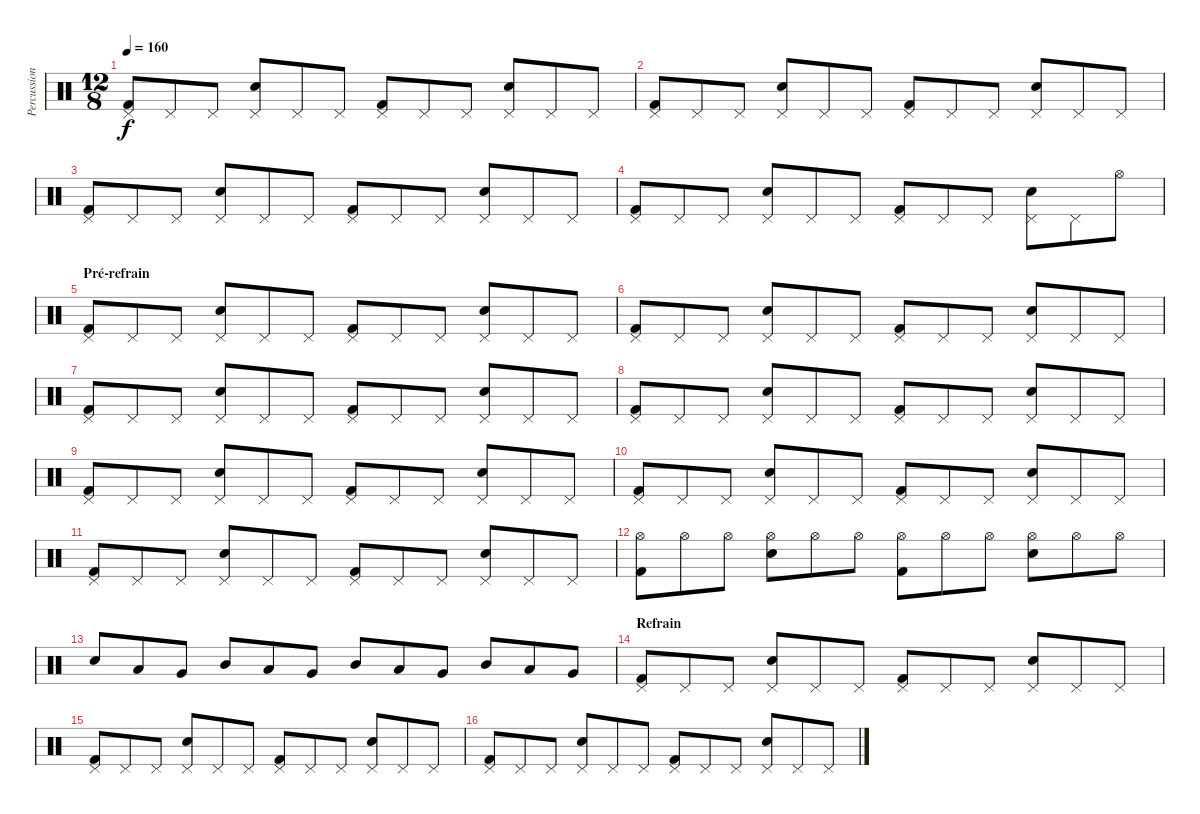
\track ("Percussions" "Percussion") {instrument percussion}
\staff {score}
\articulation defaults
\ts (12 8)
\tempo 160
\clef neutral
\ks c
("Pedal Hi-Hat (hit)" "Kick (hit) 2").8{dy f} "Pedal Hi-Hat (hit)".8 "Pedal Hi-Hat (hit)".8 ("Pedal Hi-Hat (hit)" "Electric Snare (hit)").8 "Pedal Hi-Hat (hit)".8 "Pedal Hi-Hat (hit)".8 ("Pedal Hi-Hat (hit)" "Kick (hit) 2").8 "Pedal Hi-Hat (hit)".8 "Pedal Hi-Hat (hit)".8 ("Pedal Hi-Hat (hit)" "Electric Snare (hit)").8 "Pedal Hi-Hat (hit)".8 "Pedal Hi-Hat (hit)".8 |
("Pedal Hi-Hat (hit)" "Kick (hit) 2").8 "Pedal Hi-Hat (hit)".8 "Pedal Hi-Hat (hit)".8 ("Pedal Hi-Hat (hit)" "Electric Snare (hit)").8 "Pedal Hi-Hat (hit)".8 "Pedal Hi-Hat (hit)".8 ("Pedal Hi-Hat (hit)" "Kick (hit) 2").8 "Pedal Hi-Hat (hit)".8 "Pedal Hi-Hat (hit)".8 ("Pedal Hi-Hat (hit)" "Electric Snare (hit)").8 "Pedal Hi-Hat (hit)".8 "Pedal Hi-Hat (hit)".8 |
("Pedal Hi-Hat (hit)" "Kick (hit) 2").8 "Pedal Hi-Hat (hit)".8 "Pedal Hi-Hat (hit)".8 ("Pedal Hi-Hat (hit)" "Electric Snare (hit)").8 "Pedal Hi-Hat (hit)".8 "Pedal Hi-Hat (hit)".8 ("Pedal Hi-Hat (hit)" "Kick (hit) 2").8 "Pedal Hi-Hat (hit)".8 "Pedal Hi-Hat (hit)".8 ("Pedal Hi-Hat (hit)" "Electric Snare (hit)").8 "Pedal Hi-Hat (hit)".8 "Pedal Hi-Hat (hit)".8 |
("Pedal Hi-Hat (hit)" "Kick (hit) 2").8 "Pedal Hi-Hat (hit)".8 "Pedal Hi-Hat (hit)".8 ("Pedal Hi-Hat (hit)" "Electric Snare (hit)").8 "Pedal Hi-Hat (hit)".8 "Pedal Hi-Hat (hit)".8 ("Pedal Hi-Hat (hit)" "Kick (hit) 2").8 "Pedal Hi-Hat (hit)".8 "Pedal Hi-Hat (hit)".8 ("Pedal Hi-Hat (hit)" "Electric Snare (hit)").8 "Pedal Hi-Hat (hit)".8 "Hi-Hat (open)".8 |
\section ("" "Pré-refrain")
("Pedal Hi-Hat (hit)" "Kick (hit) 2").8 "Pedal Hi-Hat (hit)".8 "Pedal Hi-Hat (hit)".8 ("Pedal Hi-Hat (hit)" "Electric Snare (hit)").8 "Pedal Hi-Hat (hit)".8 "Pedal Hi-Hat (hit)".8 ("Pedal Hi-Hat (hit)" "Kick (hit) 2").8 "Pedal Hi-Hat (hit)".8 "Pedal Hi-Hat (hit)".8 ("Pedal Hi-Hat (hit)" "Electric Snare (hit)").8 "Pedal Hi-Hat (hit)".8 "Pedal Hi-Hat (hit)".8 |
("Pedal Hi-Hat (hit)" "Kick (hit) 2").8 "Pedal Hi-Hat (hit)".8 "Pedal Hi-Hat (hit)".8 ("Pedal Hi-Hat (hit)" "Electric Snare (hit)").8 "Pedal Hi-Hat (hit)".8 "Pedal Hi-Hat (hit)".8 ("Pedal Hi-Hat (hit)" "Kick (hit) 2").8 "Pedal Hi-Hat (hit)".8 "Pedal Hi-Hat (hit)".8 ("Pedal Hi-Hat (hit)" "Electric Snare (hit)").8 "Pedal Hi-Hat (hit)".8 "Pedal Hi-Hat (hit)".8 |
("Pedal Hi-Hat (hit)" "Kick (hit) 2").8 "Pedal Hi-Hat (hit)".8 "Pedal Hi-Hat (hit)".8 ("Pedal Hi-Hat (hit)" "Electric Snare (hit)").8 "Pedal Hi-Hat (hit)".8 "Pedal Hi-Hat (hit)".8 ("Pedal Hi-Hat (hit)" "Kick (hit) 2").8 "Pedal Hi-Hat (hit)".8 "Pedal Hi-Hat (hit)".8 ("Pedal Hi-Hat (hit)" "Electric Snare (hit)").8 "Pedal Hi-Hat (hit)".8 "Pedal Hi-Hat (hit)".8 |
("Pedal Hi-Hat (hit)" "Kick (hit) 2").8 "Pedal Hi-Hat (hit)".8 "Pedal Hi-Hat (hit)".8 ("Pedal Hi-Hat (hit)" "Electric Snare (hit)").8 "Pedal Hi-Hat (hit)".8 "Pedal Hi-Hat (hit)".8 ("Pedal Hi-Hat (hit)" "Kick (hit) 2").8 "Pedal Hi-Hat (hit)".8 "Pedal Hi-Hat (hit)".8 ("Pedal Hi-Hat (hit)" "Electric Snare (hit)").8 "Pedal Hi-Hat (hit)".8 "Pedal Hi-Hat (hit)".8 |
("Pedal Hi-Hat (hit)" "Kick (hit) 2").8 "Pedal Hi-Hat (hit)".8 "Pedal Hi-Hat (hit)".8 ("Pedal Hi-Hat (hit)" "Electric Snare (hit)").8 "Pedal Hi-Hat (hit)".8 "Pedal Hi-Hat (hit)".8 ("Pedal Hi-Hat (hit)" "Kick (hit) 2").8 "Pedal Hi-Hat (hit)".8 "Pedal Hi-Hat (hit)".8 ("Pedal Hi-Hat (hit)" "Electric Snare (hit)").8 "Pedal Hi-Hat (hit)".8 "Pedal Hi-Hat (hit)".8 |
("Pedal Hi-Hat (hit)" "Kick (hit) 2").8 "Pedal Hi-Hat (hit)".8 "Pedal Hi-Hat (hit)".8 ("Pedal Hi-Hat (hit)" "Electric Snare (hit)").8 "Pedal Hi-Hat (hit)".8 "Pedal Hi-Hat (hit)".8 ("Pedal Hi-Hat (hit)" "Kick (hit) 2").8 "Pedal Hi-Hat (hit)".8 "Pedal Hi-Hat (hit)".8 ("Pedal Hi-Hat (hit)" "Electric Snare (hit)").8 "Pedal Hi-Hat (hit)".8 "Pedal Hi-Hat (hit)".8 |
("Pedal Hi-Hat (hit)" "Kick (hit) 2").8 "Pedal Hi-Hat (hit)".8 "Pedal Hi-Hat (hit)".8 ("Pedal Hi-Hat (hit)" "Electric Snare (hit)").8 "Pedal Hi-Hat (hit)".8 "Pedal Hi-Hat (hit)".8 ("Pedal Hi-Hat (hit)" "Kick (hit) 2").8 "Pedal Hi-Hat (hit)".8 "Pedal Hi-Hat (hit)".8 ("Pedal Hi-Hat (hit)" "Electric Snare (hit)").8 "Pedal Hi-Hat (hit)".8 "Pedal Hi-Hat (hit)".8 |
("Hi-Hat (open)" "Kick (hit) 2").8 "Hi-Hat (open)".8 "Hi-Hat (open)".8 ("Hi-Hat (open)" "Electric Snare (hit)").8 "Hi-Hat (open)".8 "Hi-Hat (open)".8 ("Hi-Hat (open)" "Kick (hit) 2").8 "Hi-Hat (open)".8 "Hi-Hat (open)".8 ("Hi-Hat (open)" "Electric Snare (hit)").8 "Hi-Hat (open)".8 "Hi-Hat (open)".8 |
"Electric Snare (hit)".8 "Low Tom (hit)".8 "Very Low Tom (hit)".8 "Mid Tom (hit)".8 "Low Tom (hit)".8 "Very Low Tom (hit)".8 "Mid Tom (hit)".8 "Low Tom (hit)".8 "Very Low Tom (hit)".8 "Mid Tom (hit)".8 "Low Tom (hit)".8 "Very Low Tom (hit)".8 |
\section ("" "Refrain")
("Pedal Hi-Hat (hit)" "Kick (hit) 2").8 "Pedal Hi-Hat (hit)".8 "Pedal Hi-Hat (hit)".8 ("Pedal Hi-Hat (hit)" "Electric Snare (hit)").8 "Pedal Hi-Hat (hit)".8 "Pedal Hi-Hat (hit)".8 ("Pedal Hi-Hat (hit)" "Kick (hit) 2").8 "Pedal Hi-Hat (hit)".8 "Pedal Hi-Hat (hit)".8 ("Pedal Hi-Hat (hit)" "Electric Snare (hit)").8 "Pedal Hi-Hat (hit)".8 "Pedal Hi-Hat (hit)".8 |
("Pedal Hi-Hat (hit)" "Kick (hit) 2").8 "Pedal Hi-Hat (hit)".8 "Pedal Hi-Hat (hit)".8 ("Pedal Hi-Hat (hit)" "Electric Snare (hit)").8 "Pedal Hi-Hat (hit)".8 "Pedal Hi-Hat (hit)".8 ("Pedal Hi-Hat (hit)" "Kick (hit) 2").8 "Pedal Hi-Hat (hit)".8 "Pedal Hi-Hat (hit)".8 ("Pedal Hi-Hat (hit)" "Electric Snare (hit)").8 "Pedal Hi-Hat (hit)".8 "Pedal Hi-Hat (hit)".8 |
("Pedal Hi-Hat (hit)" "Kick (hit) 2").8 "Pedal Hi-Hat (hit)".8 "Pedal Hi-Hat (hit)".8 ("Pedal Hi-Hat (hit)" "Electric Snare (hit)").8 "Pedal Hi-Hat (hit)".8 "Pedal Hi-Hat (hit)".8 ("Pedal Hi-Hat (hit)" "Kick (hit) 2").8 "Pedal Hi-Hat (hit)".8 "Pedal Hi-Hat (hit)".8 ("Pedal Hi-Hat (hit)" "Electric Snare (hit)").8 "Pedal Hi-Hat (hit)".8 "Pedal Hi-Hat (hit)".8
